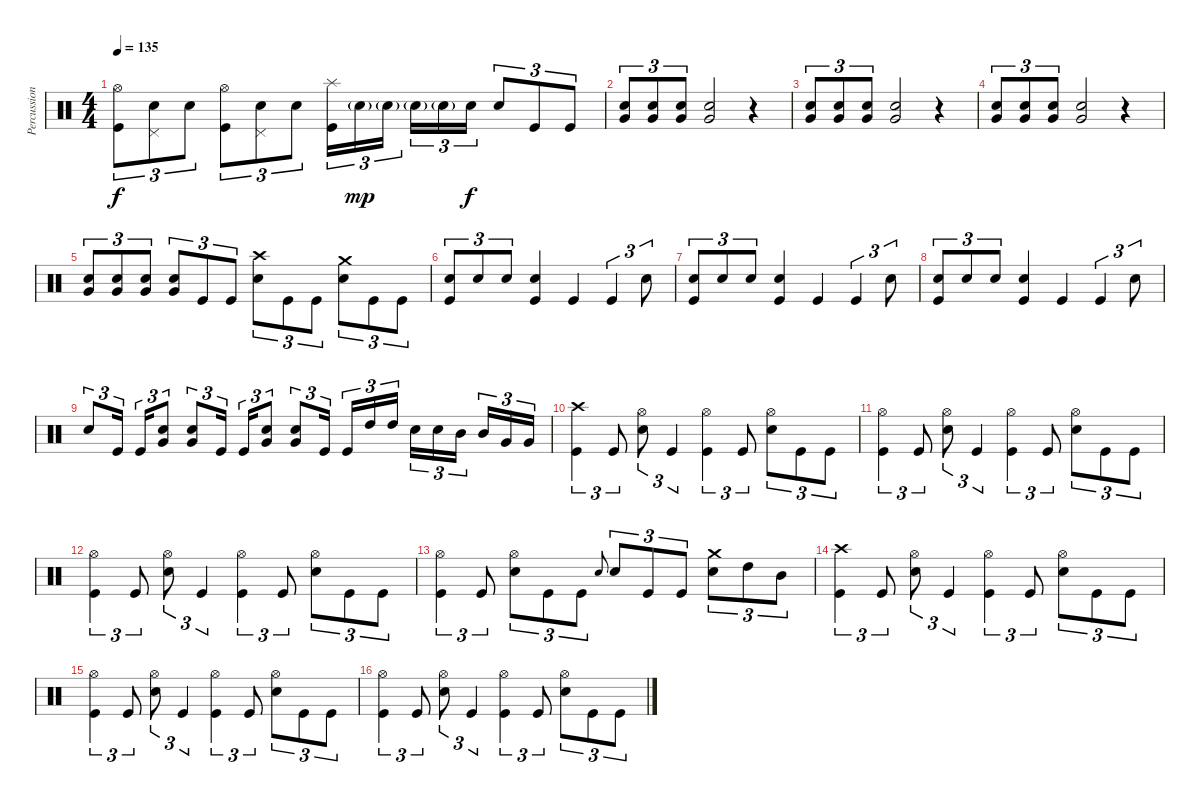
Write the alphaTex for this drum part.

\track ("Percussion" "Percussion") {instrument percussion}
\staff {score}
\articulation defaults
\ts (4 4)
\tempo 135
\clef neutral
\ks c
("Hi-Hat (open)" "Kick (hit)").8{tu (3 2) dy f} ("Pedal Hi-Hat (hit)" "Snare (hit) 2").8{tu (3 2)} "Snare (hit) 2".8{tu (3 2)} ("Hi-Hat (open)" "Kick (hit)").8{tu (3 2)} ("Pedal Hi-Hat (hit)" "Snare (hit) 2").8{tu (3 2)} "Snare (hit) 2".8{tu (3 2)} ("Splash (hit)" "Kick (hit)").16{tu (3 2)} "Snare (hit) 2"{g}.16{tu (3 2) dy mp} "Snare (hit) 2"{g}.16{tu (3 2) beam splitsecondary} "Snare (hit) 2"{g}.16{tu (3 2)} "Snare (hit) 2"{g}.16{tu (3 2)} "Snare (hit) 2".16{tu (3 2) dy f} "Snare (hit) 2".8{tu (3 2)} "Kick (hit)".8{tu (3 2)} "Kick (hit)".8{tu (3 2)} |
("Snare (hit) 2" "Very Low Tom (hit)").8{tu (3 2)} ("Snare (hit) 2" "Very Low Tom (hit)").8{tu (3 2)} ("Snare (hit) 2" "Very Low Tom (hit)").8{tu (3 2)} ("Snare (hit) 2" "Very Low Tom (hit)").2 r.4 |
("Snare (hit) 2" "Very Low Tom (hit)").8{tu (3 2)} ("Snare (hit) 2" "Very Low Tom (hit)").8{tu (3 2)} ("Snare (hit) 2" "Very Low Tom (hit)").8{tu (3 2)} ("Snare (hit) 2" "Very Low Tom (hit)").2 r.4 |
("Snare (hit) 2" "Very Low Tom (hit)").8{tu (3 2)} ("Snare (hit) 2" "Very Low Tom (hit)").8{tu (3 2)} ("Snare (hit) 2" "Very Low Tom (hit)").8{tu (3 2)} ("Snare (hit) 2" "Very Low Tom (hit)").2 r.4 |
("Snare (hit) 2" "Very Low Tom (hit)").8{tu (3 2)} ("Snare (hit) 2" "Very Low Tom (hit)").8{tu (3 2)} ("Snare (hit) 2" "Very Low Tom (hit)").8{tu (3 2)} ("Snare (hit) 2" "Very Low Tom (hit)").8{tu (3 2)} "Kick (hit)".8{tu (3 2)} "Kick (hit)".8{tu (3 2)} ("Crash high (hit)" "Snare (hit) 2").8{tu (3 2)} "Kick (hit)".8{tu (3 2)} "Kick (hit)".8{tu (3 2)} ("Crash medium (hit)" "Snare (hit) 2").8{tu (3 2)} "Kick (hit)".8{tu (3 2)} "Kick (hit)".8{tu (3 2)} |
("Snare (hit) 2" "Kick (hit)").8{tu (3 2)} "Snare (hit) 2".8{tu (3 2)} "Snare (hit) 2".8{tu (3 2)} ("Snare (hit) 2" "Kick (hit)").4 "Kick (hit)".4 "Kick (hit)".4{tu (3 2)} "Snare (hit) 2".8{tu (3 2)} |
("Snare (hit) 2" "Kick (hit)").8{tu (3 2)} "Snare (hit) 2".8{tu (3 2)} "Snare (hit) 2".8{tu (3 2)} ("Snare (hit) 2" "Kick (hit)").4 "Kick (hit)".4 "Kick (hit)".4{tu (3 2)} "Snare (hit) 2".8{tu (3 2)} |
("Snare (hit) 2" "Kick (hit)").8{tu (3 2)} "Snare (hit) 2".8{tu (3 2)} "Snare (hit) 2".8{tu (3 2)} ("Snare (hit) 2" "Kick (hit)").4 "Kick (hit)".4 "Kick (hit)".4{tu (3 2)} "Snare (hit) 2".8{tu (3 2)} |
"Snare (hit) 2".8{tu (3 2)} "Kick (hit)".16{tu (3 2) beam splitsecondary} "Kick (hit)".16{tu (3 2)} ("Snare (hit) 2" "Very Low Tom (hit)").8{tu (3 2)} ("Snare (hit) 2" "Very Low Tom (hit)").8{tu (3 2)} "Kick (hit)".16{tu (3 2) beam splitsecondary} "Kick (hit)".16{tu (3 2)} ("Snare (hit) 2" "Very Low Tom (hit)").8{tu (3 2)} ("Snare (hit) 2" "Very Low Tom (hit)").8{tu (3 2)} "Kick (hit)".16{tu (3 2) beam splitsecondary} "Kick (hit)".16{tu (3 2)} "High Tom (hit)".16{tu (3 2)} "High Tom (hit)".16{tu (3 2)} "Snare (hit) 2".16{tu (3 2)} "Snare (hit) 2".16{tu (3 2)} "Mid Tom (hit)".16{tu (3 2) beam splitsecondary} "Mid Tom (hit)".16{tu (3 2)} "Very Low Tom (hit)".16{tu (3 2)} "Very Low Tom (hit)".16{tu (3 2)} |
("Crash high (hit)" "Kick (hit)").4{tu (3 2)} "Kick (hit)".8{tu (3 2)} ("Hi-Hat (open)" "Snare (hit) 2").8{tu (3 2)} "Kick (hit)".4{tu (3 2)} ("Hi-Hat (open)" "Kick (hit)").4{tu (3 2)} "Kick (hit)".8{tu (3 2)} ("Hi-Hat (open)" "Snare (hit) 2").8{tu (3 2)} "Kick (hit)".8{tu (3 2)} "Kick (hit)".8{tu (3 2)} |
("Hi-Hat (open)" "Kick (hit)").4{tu (3 2)} "Kick (hit)".8{tu (3 2)} ("Hi-Hat (open)" "Snare (hit) 2").8{tu (3 2)} "Kick (hit)".4{tu (3 2)} ("Hi-Hat (open)" "Kick (hit)").4{tu (3 2)} "Kick (hit)".8{tu (3 2)} ("Hi-Hat (open)" "Snare (hit) 2").8{tu (3 2)} "Kick (hit)".8{tu (3 2)} "Kick (hit)".8{tu (3 2)} |
("Hi-Hat (open)" "Kick (hit)").4{tu (3 2)} "Kick (hit)".8{tu (3 2)} ("Hi-Hat (open)" "Snare (hit) 2").8{tu (3 2)} "Kick (hit)".4{tu (3 2)} ("Hi-Hat (open)" "Kick (hit)").4{tu (3 2)} "Kick (hit)".8{tu (3 2)} ("Hi-Hat (open)" "Snare (hit) 2").8{tu (3 2)} "Kick (hit)".8{tu (3 2)} "Kick (hit)".8{tu (3 2)} |
("Hi-Hat (open)" "Kick (hit)").4{tu (3 2)} "Kick (hit)".8{tu (3 2)} ("Hi-Hat (open)" "Snare (hit) 2").8{tu (3 2)} "Kick (hit)".8{tu (3 2)} "Kick (hit)".8{tu (3 2)} "Snare (hit) 2".8{gr onbeat} "Snare (hit) 2".8{tu (3 2)} "Kick (hit)".8{tu (3 2)} "Kick (hit)".8{tu (3 2)} ("Crash medium (hit)" "Snare (hit) 2").8{tu (3 2)} "High Tom (hit)".8{tu (3 2)} "Mid Tom (hit)".8{tu (3 2)} |
("Crash high (hit)" "Kick (hit)").4{tu (3 2)} "Kick (hit)".8{tu (3 2)} ("Hi-Hat (open)" "Snare (hit) 2").8{tu (3 2)} "Kick (hit)".4{tu (3 2)} ("Hi-Hat (open)" "Kick (hit)").4{tu (3 2)} "Kick (hit)".8{tu (3 2)} ("Hi-Hat (open)" "Snare (hit) 2").8{tu (3 2)} "Kick (hit)".8{tu (3 2)} "Kick (hit)".8{tu (3 2)} |
("Hi-Hat (open)" "Kick (hit)").4{tu (3 2)} "Kick (hit)".8{tu (3 2)} ("Hi-Hat (open)" "Snare (hit) 2").8{tu (3 2)} "Kick (hit)".4{tu (3 2)} ("Hi-Hat (open)" "Kick (hit)").4{tu (3 2)} "Kick (hit)".8{tu (3 2)} ("Hi-Hat (open)" "Snare (hit) 2").8{tu (3 2)} "Kick (hit)".8{tu (3 2)} "Kick (hit)".8{tu (3 2)} |
("Hi-Hat (open)" "Kick (hit)").4{tu (3 2)} "Kick (hit)".8{tu (3 2)} ("Hi-Hat (open)" "Snare (hit) 2").8{tu (3 2)} "Kick (hit)".4{tu (3 2)} ("Hi-Hat (open)" "Kick (hit)").4{tu (3 2)} "Kick (hit)".8{tu (3 2)} ("Hi-Hat (open)" "Snare (hit) 2").8{tu (3 2)} "Kick (hit)".8{tu (3 2)} "Kick (hit)".8{tu (3 2)}
